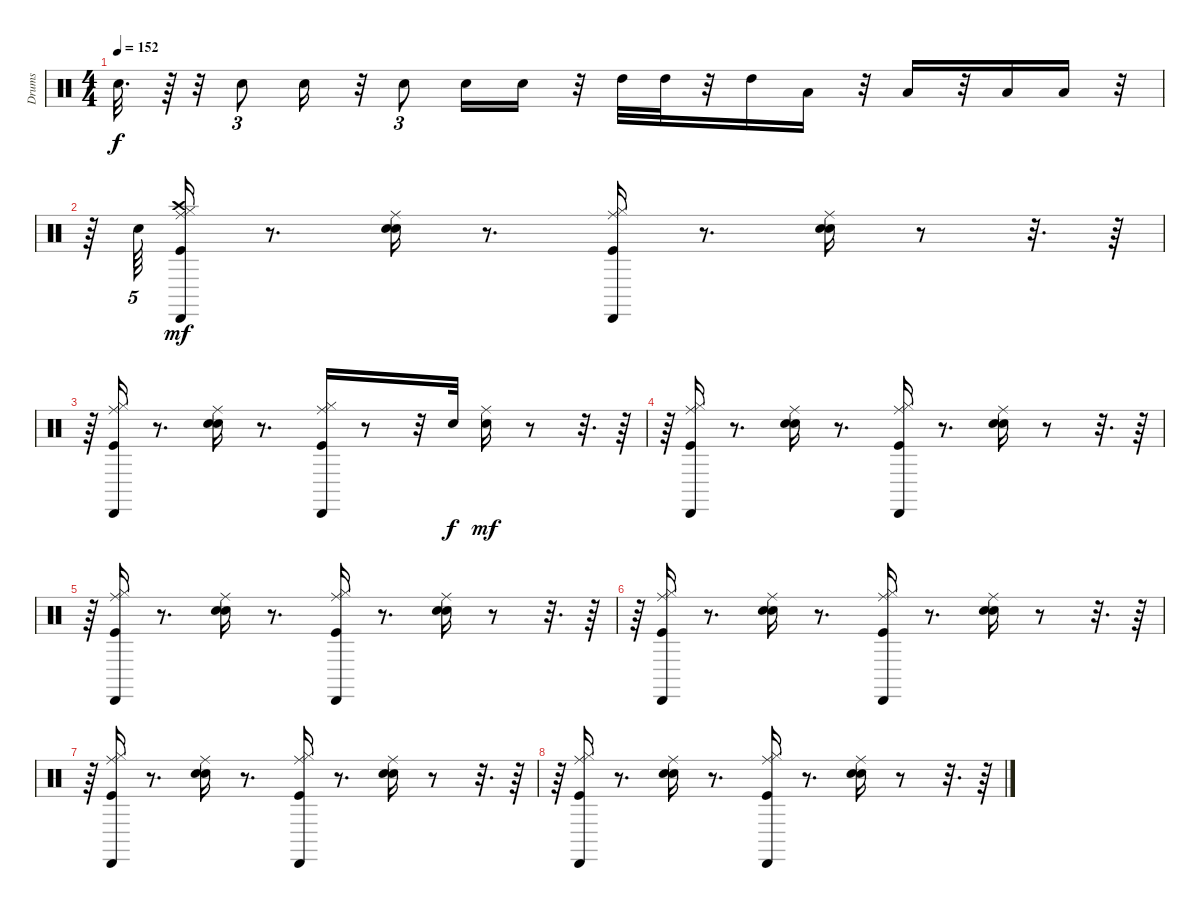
\track ("Drums" "Drums") {instrument percussion}
\staff {score}
\articulation defaults
\ts (4 4)
\tempo 152
\clef neutral
\ks c "Snare (hit)"{t}.32{d dy f}
r.64 r.32 "Snare (hit) 2".8{tu (3 2)} "Snare (hit) 2".16 r.32 "Snare (hit) 2".8{tu (3 2)} "Snare (hit) 2".16 "Snare (hit) 2".16 r.32 "High Tom (hit)".32 "High Tom (hit)".32 r.32 "High Tom (hit)".16 "Low Tom (hit)".16 r.32 "Low Tom (hit)".16 r.32 "Low Tom (hit)".16 "Low Floor Tom (hit)".16 r.32 |
r.64 "Snare (hit) 2".64{tu (5 4)} ("Kick (hit)" "Hi-Hat (closed)" "Crash high (hit)" "Ride (middle)" "Cabasa (hit)").16{dy mf} r.8{d} ("Ride (middle)" "Hand Clap (hit)" "Snare (hit) 2").16 r.8{d} ("Kick (hit)" "Hi-Hat (closed)" "Ride (middle)" "Cabasa (hit)").16 r.8{d} ("Snare (hit) 2" "Ride (middle)" "Hand Clap (hit)").16 r.8 r.32{d} r.64 |
r.64 ("Kick (hit)" "Hi-Hat (closed)" "Ride (middle)" "Cabasa (hit)").16 r.8{d} ("Snare (hit) 2" "Ride (middle)" "Hand Clap (hit)").16 r.8{d} ("Kick (hit)" "Hi-Hat (closed)" "Ride (middle)" "Cabasa (hit)").16 r.8 r.32 "Snare (hit) 2".32{dy f} ("Hand Clap (hit)" "Ride (middle)").16{dy mf} r.8 r.32{d} r.64 |
r.64 ("Kick (hit)" "Hi-Hat (closed)" "Ride (middle)" "Cabasa (hit)").16 r.8{d} ("Hand Clap (hit)" "Ride (middle)" "Snare (hit) 2").16 r.8{d} ("Kick (hit)" "Hi-Hat (closed)" "Ride (middle)" "Cabasa (hit)").16 r.8{d} ("Hand Clap (hit)" "Snare (hit) 2" "Ride (middle)").16 r.8 r.32{d} r.64 |
r.64 ("Kick (hit)" "Hi-Hat (closed)" "Ride (middle)" "Cabasa (hit)").16 r.8{d} ("Ride (middle)" "Hand Clap (hit)" "Snare (hit) 2").16 r.8{d} ("Kick (hit)" "Hi-Hat (closed)" "Ride (middle)" "Cabasa (hit)").16 r.8{d} ("Hand Clap (hit)" "Snare (hit) 2" "Ride (middle)").16 r.8 r.32{d} r.64 |
r.64 ("Kick (hit)" "Hi-Hat (closed)" "Ride (middle)" "Cabasa (hit)").16 r.8{d} ("Hand Clap (hit)" "Snare (hit) 2" "Ride (middle)").16 r.8{d} ("Kick (hit)" "Hi-Hat (closed)" "Ride (middle)" "Cabasa (hit)").16 r.8{d} ("Hand Clap (hit)" "Ride (middle)" "Snare (hit) 2").16 r.8 r.32{d} r.64 |
r.64 ("Kick (hit)" "Hi-Hat (closed)" "Ride (middle)" "Cabasa (hit)").16 r.8{d} ("Hand Clap (hit)" "Ride (middle)" "Snare (hit) 2").16 r.8{d} ("Kick (hit)" "Hi-Hat (closed)" "Ride (middle)" "Cabasa (hit)").16 r.8{d} ("Hand Clap (hit)" "Ride (middle)" "Snare (hit) 2").16 r.8 r.32{d} r.64 |
r.64 ("Kick (hit)" "Hi-Hat (closed)" "Ride (middle)" "Cabasa (hit)").16 r.8{d} ("Snare (hit) 2" "Ride (middle)" "Hand Clap (hit)").16 r.8{d} ("Kick (hit)" "Hi-Hat (closed)" "Ride (middle)" "Cabasa (hit)").16 r.8{d} ("Hand Clap (hit)" "Ride (middle)" "Snare (hit) 2").16 r.8 r.32{d} r.64
